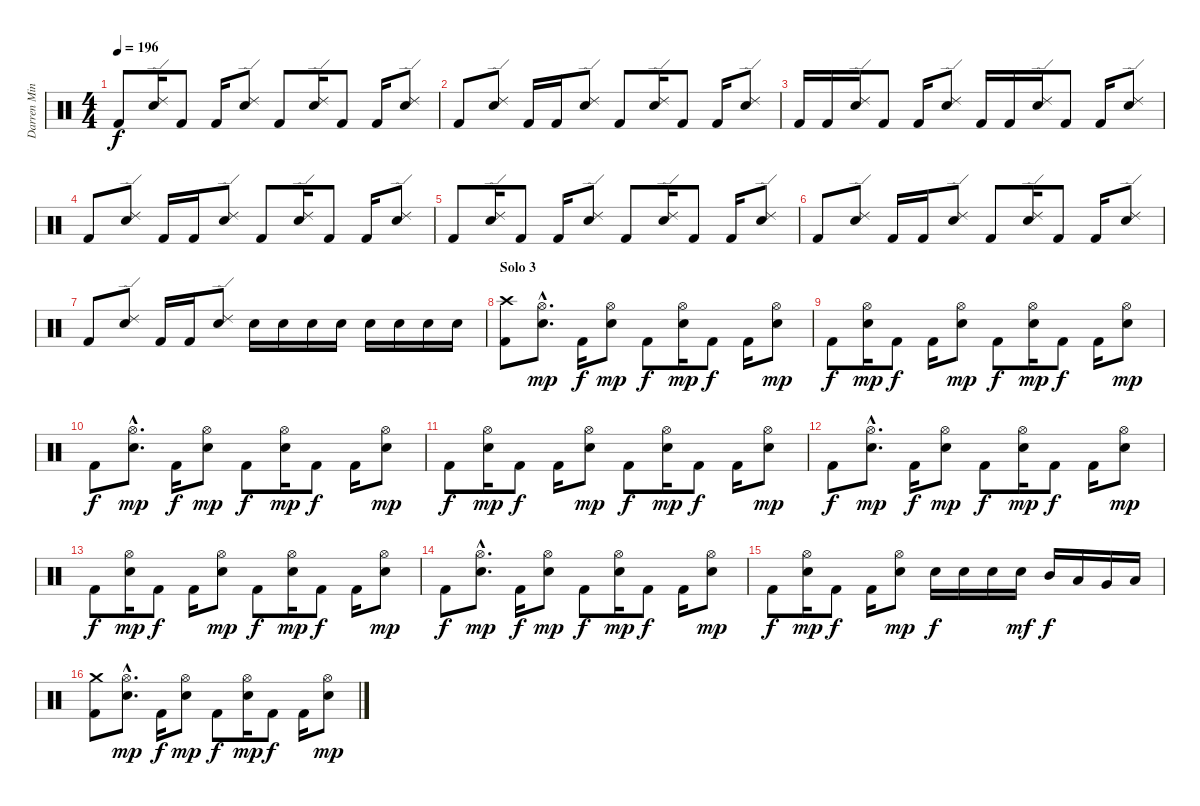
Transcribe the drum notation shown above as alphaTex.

\track ("Darren Minter" "Darren Min") {instrument percussion}
\staff {score}
\articulation defaults
\ts (4 4)
\tempo 196
\clef neutral
\ks c "Kick (hit) 2".8{dy f}
("Ride (edge) 2" "Snare (hit) 2").16 "Kick (hit) 2".8 "Kick (hit) 2".16 ("Ride (edge) 2" "Snare (hit) 2").8 "Kick (hit) 2".8 ("Ride (edge) 2" "Snare (hit) 2").16 "Kick (hit) 2".8 "Kick (hit) 2".16 ("Ride (edge) 2" "Snare (hit) 2").8 |
"Kick (hit) 2".8 ("Ride (edge) 2" "Snare (hit) 2").8 "Kick (hit) 2".16 "Kick (hit) 2".16 ("Ride (edge) 2" "Snare (hit) 2").8 "Kick (hit) 2".8 ("Ride (edge) 2" "Snare (hit) 2").16 "Kick (hit) 2".8 "Kick (hit) 2".16 ("Ride (edge) 2" "Snare (hit) 2").8 |
"Kick (hit) 2".16 "Kick (hit) 2".16 ("Ride (edge) 2" "Snare (hit) 2").16 "Kick (hit) 2".8 "Kick (hit) 2".16 ("Ride (edge) 2" "Snare (hit) 2").8 "Kick (hit) 2".16 "Kick (hit) 2".16 ("Ride (edge) 2" "Snare (hit) 2").16 "Kick (hit) 2".8 "Kick (hit) 2".16 ("Ride (edge) 2" "Snare (hit) 2").8 |
"Kick (hit) 2".8 ("Ride (edge) 2" "Snare (hit) 2").8 "Kick (hit) 2".16 "Kick (hit) 2".16 ("Ride (edge) 2" "Snare (hit) 2").8 "Kick (hit) 2".8 ("Ride (edge) 2" "Snare (hit) 2").16 "Kick (hit) 2".8 "Kick (hit) 2".16 ("Ride (edge) 2" "Snare (hit) 2").8 |
"Kick (hit) 2".8 ("Ride (edge) 2" "Snare (hit) 2").16 "Kick (hit) 2".8 "Kick (hit) 2".16 ("Ride (edge) 2" "Snare (hit) 2").8 "Kick (hit) 2".8 ("Ride (edge) 2" "Snare (hit) 2").16 "Kick (hit) 2".8 "Kick (hit) 2".16 ("Ride (edge) 2" "Snare (hit) 2").8 |
"Kick (hit) 2".8 ("Ride (edge) 2" "Snare (hit) 2").8 "Kick (hit) 2".16 "Kick (hit) 2".16 ("Ride (edge) 2" "Snare (hit) 2").8 "Kick (hit) 2".8 ("Ride (edge) 2" "Snare (hit) 2").16 "Kick (hit) 2".8 "Kick (hit) 2".16 ("Ride (edge) 2" "Snare (hit) 2").8 |
"Kick (hit) 2".8 ("Ride (edge) 2" "Snare (hit) 2").8 "Kick (hit) 2".16 "Kick (hit) 2".16 ("Ride (edge) 2" "Snare (hit) 2").8 "Snare (hit) 2".16 "Snare (hit) 2".16 "Snare (hit) 2".16 "Snare (hit) 2".16 "Snare (hit) 2".16 "Snare (hit) 2".16 "Snare (hit) 2".16 "Snare (hit) 2".16 |
\section ("" "Solo 3")
("Kick (hit) 2" "Crash high (hit)").8 ("Hi-Hat (open)"{hac} "Snare (hit) 2"{hac}).8{d dy mp} "Kick (hit) 2".16{dy f} ("Hi-Hat (open)" "Snare (hit) 2").8{dy mp} "Kick (hit) 2".8{dy f} ("Hi-Hat (open)" "Snare (hit) 2").16{dy mp} "Kick (hit) 2".8{dy f} "Kick (hit) 2".16 ("Hi-Hat (open)" "Snare (hit) 2").8{dy mp} |
"Kick (hit) 2".8{dy f} ("Hi-Hat (open)" "Snare (hit) 2").16{dy mp} "Kick (hit) 2".8{dy f} "Kick (hit) 2".16 ("Hi-Hat (open)" "Snare (hit) 2").8{dy mp} "Kick (hit) 2".8{dy f} ("Hi-Hat (open)" "Snare (hit) 2").16{dy mp} "Kick (hit) 2".8{dy f} "Kick (hit) 2".16 ("Hi-Hat (open)" "Snare (hit) 2").8{dy mp} |
"Kick (hit) 2".8{dy f} ("Hi-Hat (open)"{hac} "Snare (hit) 2"{hac}).8{d dy mp} "Kick (hit) 2".16{dy f} ("Hi-Hat (open)" "Snare (hit) 2").8{dy mp} "Kick (hit) 2".8{dy f} ("Hi-Hat (open)" "Snare (hit) 2").16{dy mp} "Kick (hit) 2".8{dy f} "Kick (hit) 2".16 ("Hi-Hat (open)" "Snare (hit) 2").8{dy mp} |
"Kick (hit) 2".8{dy f} ("Hi-Hat (open)" "Snare (hit) 2").16{dy mp} "Kick (hit) 2".8{dy f} "Kick (hit) 2".16 ("Hi-Hat (open)" "Snare (hit) 2").8{dy mp} "Kick (hit) 2".8{dy f} ("Hi-Hat (open)" "Snare (hit) 2").16{dy mp} "Kick (hit) 2".8{dy f} "Kick (hit) 2".16 ("Hi-Hat (open)" "Snare (hit) 2").8{dy mp} |
"Kick (hit) 2".8{dy f} ("Hi-Hat (open)"{hac} "Snare (hit) 2"{hac}).8{d dy mp} "Kick (hit) 2".16{dy f} ("Hi-Hat (open)" "Snare (hit) 2").8{dy mp} "Kick (hit) 2".8{dy f} ("Hi-Hat (open)" "Snare (hit) 2").16{dy mp} "Kick (hit) 2".8{dy f} "Kick (hit) 2".16 ("Hi-Hat (open)" "Snare (hit) 2").8{dy mp} |
"Kick (hit) 2".8{dy f} ("Hi-Hat (open)" "Snare (hit) 2").16{dy mp} "Kick (hit) 2".8{dy f} "Kick (hit) 2".16 ("Hi-Hat (open)" "Snare (hit) 2").8{dy mp} "Kick (hit) 2".8{dy f} ("Hi-Hat (open)" "Snare (hit) 2").16{dy mp} "Kick (hit) 2".8{dy f} "Kick (hit) 2".16 ("Hi-Hat (open)" "Snare (hit) 2").8{dy mp} |
"Kick (hit) 2".8{dy f} ("Hi-Hat (open)"{hac} "Snare (hit) 2"{hac}).8{d dy mp} "Kick (hit) 2".16{dy f} ("Hi-Hat (open)" "Snare (hit) 2").8{dy mp} "Kick (hit) 2".8{dy f} ("Hi-Hat (open)" "Snare (hit) 2").16{dy mp} "Kick (hit) 2".8{dy f} "Kick (hit) 2".16 ("Hi-Hat (open)" "Snare (hit) 2").8{dy mp} |
"Kick (hit) 2".8{dy f} ("Hi-Hat (open)" "Snare (hit) 2").16{dy mp} "Kick (hit) 2".8{dy f} "Kick (hit) 2".16 ("Hi-Hat (open)" "Snare (hit) 2").8{dy mp} "Snare (hit) 2".16{dy f} "Snare (hit) 2".16 "Snare (hit) 2".16 "Snare (hit) 2".16{dy mf} "Mid Tom (hit)".16{dy f} "Low Tom (hit)".16 "Very Low Tom (hit)".16 "Low Floor Tom (hit)".16 |
("Kick (hit) 2" "Crash medium (hit)").8 ("Hi-Hat (open)"{hac} "Snare (hit) 2"{hac}).8{d dy mp} "Kick (hit) 2".16{dy f} ("Hi-Hat (open)" "Snare (hit) 2").8{dy mp} "Kick (hit) 2".8{dy f} ("Hi-Hat (open)" "Snare (hit) 2").16{dy mp} "Kick (hit) 2".8{dy f} "Kick (hit) 2".16 ("Hi-Hat (open)" "Snare (hit) 2").8{dy mp}
